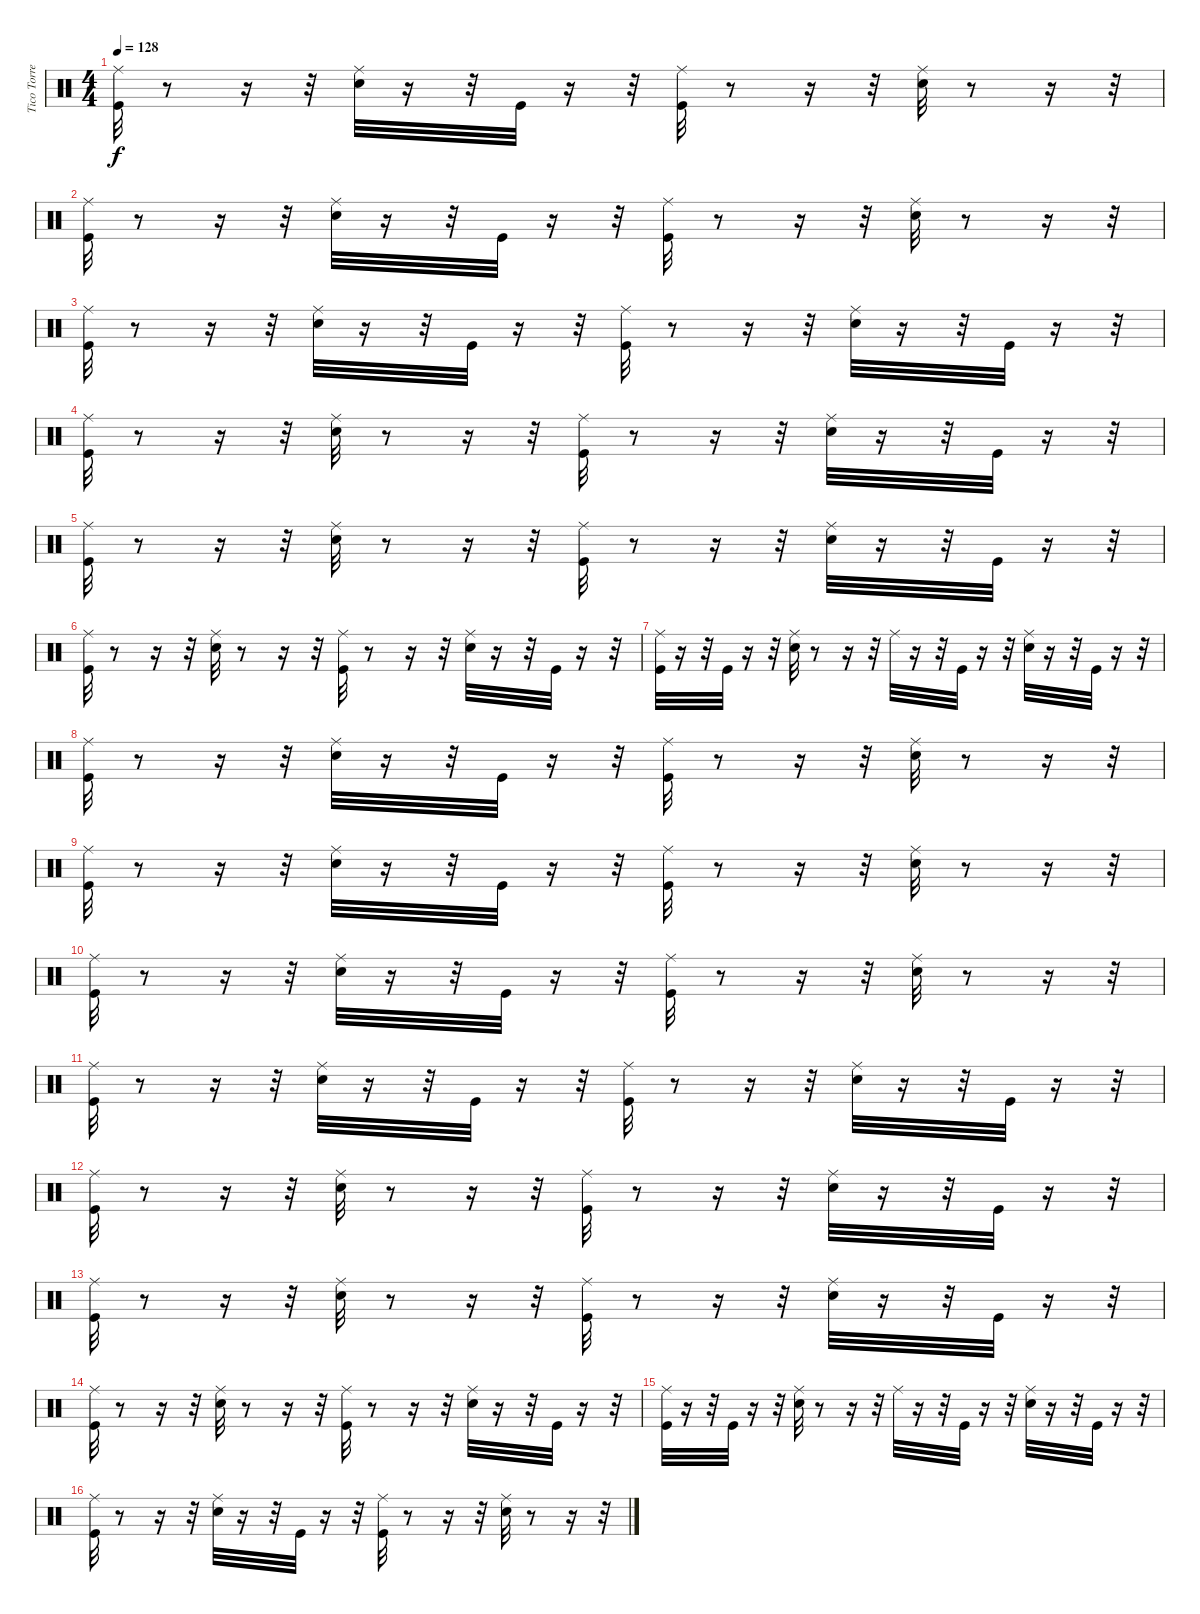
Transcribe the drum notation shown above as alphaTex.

\track ("Tico Torres" "Tico Torre") {instrument percussion}
\staff {score}
\articulation defaults
\ts (4 4)
\tempo 128
\clef neutral
\ks c
("Ride (middle)" "Kick (hit)").32{dy f} r.8 r.16 r.32 ("Ride (middle)" "Snare (hit) 2").32 r.16 r.32 "Kick (hit)".32 r.16 r.32 ("Ride (middle)" "Kick (hit)").32 r.8 r.16 r.32 ("Ride (middle)" "Snare (hit) 2").32 r.8 r.16 r.32 |
("Ride (middle)" "Kick (hit)").32 r.8 r.16 r.32 ("Ride (middle)" "Snare (hit) 2").32 r.16 r.32 "Kick (hit)".32 r.16 r.32 ("Ride (middle)" "Kick (hit)").32 r.8 r.16 r.32 ("Ride (middle)" "Snare (hit) 2").32 r.8 r.16 r.32 |
("Ride (middle)" "Kick (hit)").32 r.8 r.16 r.32 ("Ride (middle)" "Snare (hit) 2").32 r.16 r.32 "Kick (hit)".32 r.16 r.32 ("Ride (middle)" "Kick (hit)").32 r.8 r.16 r.32 ("Ride (middle)" "Snare (hit) 2").32 r.16 r.32 "Kick (hit)".32 r.16 r.32 |
("Ride (middle)" "Kick (hit)").32 r.8 r.16 r.32 ("Ride (middle)" "Snare (hit) 2").32 r.8 r.16 r.32 ("Ride (middle)" "Kick (hit)").32 r.8 r.16 r.32 ("Ride (middle)" "Snare (hit) 2").32 r.16 r.32 "Kick (hit)".32 r.16 r.32 |
("Ride (middle)" "Kick (hit)").32 r.8 r.16 r.32 ("Ride (middle)" "Snare (hit) 2").32 r.8 r.16 r.32 ("Ride (middle)" "Kick (hit)").32 r.8 r.16 r.32 ("Ride (middle)" "Snare (hit) 2").32 r.16 r.32 "Kick (hit)".32 r.16 r.32 |
("Ride (middle)" "Kick (hit)").32 r.8 r.16 r.32 ("Ride (middle)" "Snare (hit) 2").32 r.8 r.16 r.32 ("Ride (middle)" "Kick (hit)").32 r.8 r.16 r.32 ("Ride (middle)" "Snare (hit) 2").32 r.16 r.32 "Kick (hit)".32 r.16 r.32 |
("Ride (middle)" "Kick (hit)").32 r.16 r.32 "Kick (hit)".32 r.16 r.32 ("Ride (middle)" "Snare (hit) 2").32 r.8 r.16 r.32 "Ride (middle)".32 r.16 r.32 "Kick (hit)".32 r.16 r.32 ("Ride (middle)" "Snare (hit) 2").32 r.16 r.32 "Kick (hit)".32 r.16 r.32 |
("Ride (middle)" "Kick (hit)").32 r.8 r.16 r.32 ("Ride (middle)" "Snare (hit) 2").32 r.16 r.32 "Kick (hit)".32 r.16 r.32 ("Ride (middle)" "Kick (hit)").32 r.8 r.16 r.32 ("Ride (middle)" "Snare (hit) 2").32 r.8 r.16 r.32 |
("Ride (middle)" "Kick (hit)").32 r.8 r.16 r.32 ("Ride (middle)" "Snare (hit) 2").32 r.16 r.32 "Kick (hit)".32 r.16 r.32 ("Ride (middle)" "Kick (hit)").32 r.8 r.16 r.32 ("Ride (middle)" "Snare (hit) 2").32 r.8 r.16 r.32 |
("Ride (middle)" "Kick (hit)").32 r.8 r.16 r.32 ("Ride (middle)" "Snare (hit) 2").32 r.16 r.32 "Kick (hit)".32 r.16 r.32 ("Ride (middle)" "Kick (hit)").32 r.8 r.16 r.32 ("Ride (middle)" "Snare (hit) 2").32 r.8 r.16 r.32 |
("Ride (middle)" "Kick (hit)").32 r.8 r.16 r.32 ("Ride (middle)" "Snare (hit) 2").32 r.16 r.32 "Kick (hit)".32 r.16 r.32 ("Ride (middle)" "Kick (hit)").32 r.8 r.16 r.32 ("Ride (middle)" "Snare (hit) 2").32 r.16 r.32 "Kick (hit)".32 r.16 r.32 |
("Ride (middle)" "Kick (hit)").32 r.8 r.16 r.32 ("Ride (middle)" "Snare (hit) 2").32 r.8 r.16 r.32 ("Ride (middle)" "Kick (hit)").32 r.8 r.16 r.32 ("Ride (middle)" "Snare (hit) 2").32 r.16 r.32 "Kick (hit)".32 r.16 r.32 |
("Ride (middle)" "Kick (hit)").32 r.8 r.16 r.32 ("Ride (middle)" "Snare (hit) 2").32 r.8 r.16 r.32 ("Ride (middle)" "Kick (hit)").32 r.8 r.16 r.32 ("Ride (middle)" "Snare (hit) 2").32 r.16 r.32 "Kick (hit)".32 r.16 r.32 |
("Ride (middle)" "Kick (hit)").32 r.8 r.16 r.32 ("Ride (middle)" "Snare (hit) 2").32 r.8 r.16 r.32 ("Ride (middle)" "Kick (hit)").32 r.8 r.16 r.32 ("Ride (middle)" "Snare (hit) 2").32 r.16 r.32 "Kick (hit)".32 r.16 r.32 |
("Ride (middle)" "Kick (hit)").32 r.16 r.32 "Kick (hit)".32 r.16 r.32 ("Ride (middle)" "Snare (hit) 2").32 r.8 r.16 r.32 "Ride (middle)".32 r.16 r.32 "Kick (hit)".32 r.16 r.32 ("Ride (middle)" "Snare (hit) 2").32 r.16 r.32 "Kick (hit)".32 r.16 r.32 |
("Ride (middle)" "Kick (hit)").32 r.8 r.16 r.32 ("Ride (middle)" "Snare (hit) 2").32 r.16 r.32 "Kick (hit)".32 r.16 r.32 ("Ride (middle)" "Kick (hit)").32 r.8 r.16 r.32 ("Ride (middle)" "Snare (hit) 2").32 r.8 r.16 r.32
